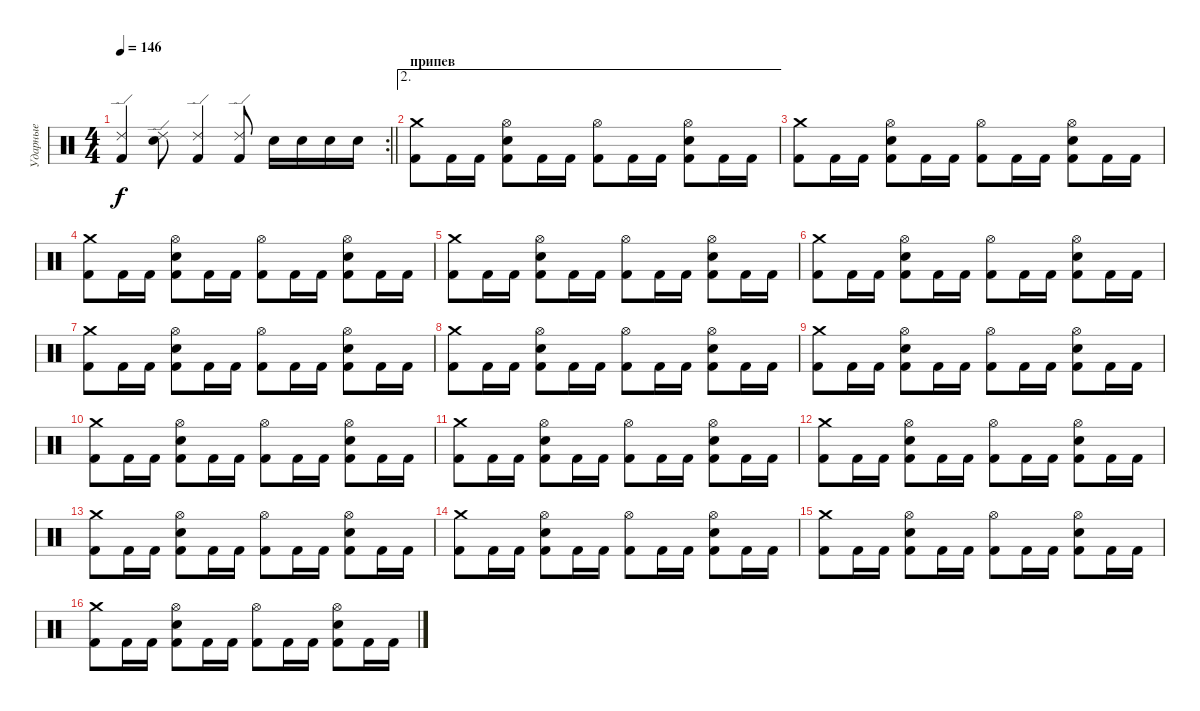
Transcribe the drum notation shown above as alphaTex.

\track ("Ударные" "Ударные") {instrument percussion}
\staff {score}
\articulation defaults
\rc 2
\ts (4 4)
\tempo 146
\clef neutral
\barLineRight lightlight
\ks c
("Ride (edge) 2" "Kick (hit) 2").4{dy f} ("Ride (edge) 2" "Snare (hit) 2").8 ("Ride (edge) 2" "Kick (hit) 2").4 ("Ride (edge) 2" "Kick (hit) 2").8 "Snare (hit) 2".16 "Snare (hit) 2".16 "Snare (hit) 2".16 "Snare (hit) 2".16 |
\ae 2
\section ("" "припев")
("Kick (hit) 2" "Crash medium (hit)").8 "Kick (hit) 2".16 "Kick (hit) 2".16 ("Kick (hit) 2" "Snare (hit) 2" "Hi-Hat (open)").8 "Kick (hit) 2".16 "Kick (hit) 2".16 ("Kick (hit) 2" "Hi-Hat (open)").8 "Kick (hit) 2".16 "Kick (hit) 2".16 ("Kick (hit) 2" "Snare (hit) 2" "Hi-Hat (open)").8 "Kick (hit) 2".16 "Kick (hit) 2".16 |
("Kick (hit) 2" "Crash medium (hit)").8 "Kick (hit) 2".16 "Kick (hit) 2".16 ("Kick (hit) 2" "Snare (hit) 2" "Hi-Hat (open)").8 "Kick (hit) 2".16 "Kick (hit) 2".16 ("Kick (hit) 2" "Hi-Hat (open)").8 "Kick (hit) 2".16 "Kick (hit) 2".16 ("Kick (hit) 2" "Snare (hit) 2" "Hi-Hat (open)").8 "Kick (hit) 2".16 "Kick (hit) 2".16 |
("Kick (hit) 2" "Crash medium (hit)").8 "Kick (hit) 2".16 "Kick (hit) 2".16 ("Kick (hit) 2" "Snare (hit) 2" "Hi-Hat (open)").8 "Kick (hit) 2".16 "Kick (hit) 2".16 ("Kick (hit) 2" "Hi-Hat (open)").8 "Kick (hit) 2".16 "Kick (hit) 2".16 ("Kick (hit) 2" "Snare (hit) 2" "Hi-Hat (open)").8 "Kick (hit) 2".16 "Kick (hit) 2".16 |
("Kick (hit) 2" "Crash medium (hit)").8 "Kick (hit) 2".16 "Kick (hit) 2".16 ("Kick (hit) 2" "Snare (hit) 2" "Hi-Hat (open)").8 "Kick (hit) 2".16 "Kick (hit) 2".16 ("Kick (hit) 2" "Hi-Hat (open)").8 "Kick (hit) 2".16 "Kick (hit) 2".16 ("Kick (hit) 2" "Snare (hit) 2" "Hi-Hat (open)").8 "Kick (hit) 2".16 "Kick (hit) 2".16 |
("Kick (hit) 2" "Crash medium (hit)").8 "Kick (hit) 2".16 "Kick (hit) 2".16 ("Kick (hit) 2" "Snare (hit) 2" "Hi-Hat (open)").8 "Kick (hit) 2".16 "Kick (hit) 2".16 ("Kick (hit) 2" "Hi-Hat (open)").8 "Kick (hit) 2".16 "Kick (hit) 2".16 ("Kick (hit) 2" "Snare (hit) 2" "Hi-Hat (open)").8 "Kick (hit) 2".16 "Kick (hit) 2".16 |
("Kick (hit) 2" "Crash medium (hit)").8 "Kick (hit) 2".16 "Kick (hit) 2".16 ("Kick (hit) 2" "Snare (hit) 2" "Hi-Hat (open)").8 "Kick (hit) 2".16 "Kick (hit) 2".16 ("Kick (hit) 2" "Hi-Hat (open)").8 "Kick (hit) 2".16 "Kick (hit) 2".16 ("Kick (hit) 2" "Snare (hit) 2" "Hi-Hat (open)").8 "Kick (hit) 2".16 "Kick (hit) 2".16 |
("Kick (hit) 2" "Crash medium (hit)").8 "Kick (hit) 2".16 "Kick (hit) 2".16 ("Kick (hit) 2" "Snare (hit) 2" "Hi-Hat (open)").8 "Kick (hit) 2".16 "Kick (hit) 2".16 ("Kick (hit) 2" "Hi-Hat (open)").8 "Kick (hit) 2".16 "Kick (hit) 2".16 ("Kick (hit) 2" "Snare (hit) 2" "Hi-Hat (open)").8 "Kick (hit) 2".16 "Kick (hit) 2".16 |
("Kick (hit) 2" "Crash medium (hit)").8 "Kick (hit) 2".16 "Kick (hit) 2".16 ("Kick (hit) 2" "Snare (hit) 2" "Hi-Hat (open)").8 "Kick (hit) 2".16 "Kick (hit) 2".16 ("Kick (hit) 2" "Hi-Hat (open)").8 "Kick (hit) 2".16 "Kick (hit) 2".16 ("Kick (hit) 2" "Snare (hit) 2" "Hi-Hat (open)").8 "Kick (hit) 2".16 "Kick (hit) 2".16 |
("Kick (hit) 2" "Crash medium (hit)").8 "Kick (hit) 2".16 "Kick (hit) 2".16 ("Kick (hit) 2" "Snare (hit) 2" "Hi-Hat (open)").8 "Kick (hit) 2".16 "Kick (hit) 2".16 ("Kick (hit) 2" "Hi-Hat (open)").8 "Kick (hit) 2".16 "Kick (hit) 2".16 ("Kick (hit) 2" "Snare (hit) 2" "Hi-Hat (open)").8 "Kick (hit) 2".16 "Kick (hit) 2".16 |
("Kick (hit) 2" "Crash medium (hit)").8 "Kick (hit) 2".16 "Kick (hit) 2".16 ("Kick (hit) 2" "Snare (hit) 2" "Hi-Hat (open)").8 "Kick (hit) 2".16 "Kick (hit) 2".16 ("Kick (hit) 2" "Hi-Hat (open)").8 "Kick (hit) 2".16 "Kick (hit) 2".16 ("Kick (hit) 2" "Snare (hit) 2" "Hi-Hat (open)").8 "Kick (hit) 2".16 "Kick (hit) 2".16 |
("Kick (hit) 2" "Crash medium (hit)").8 "Kick (hit) 2".16 "Kick (hit) 2".16 ("Kick (hit) 2" "Snare (hit) 2" "Hi-Hat (open)").8 "Kick (hit) 2".16 "Kick (hit) 2".16 ("Kick (hit) 2" "Hi-Hat (open)").8 "Kick (hit) 2".16 "Kick (hit) 2".16 ("Kick (hit) 2" "Snare (hit) 2" "Hi-Hat (open)").8 "Kick (hit) 2".16 "Kick (hit) 2".16 |
("Kick (hit) 2" "Crash medium (hit)").8 "Kick (hit) 2".16 "Kick (hit) 2".16 ("Kick (hit) 2" "Snare (hit) 2" "Hi-Hat (open)").8 "Kick (hit) 2".16 "Kick (hit) 2".16 ("Kick (hit) 2" "Hi-Hat (open)").8 "Kick (hit) 2".16 "Kick (hit) 2".16 ("Kick (hit) 2" "Snare (hit) 2" "Hi-Hat (open)").8 "Kick (hit) 2".16 "Kick (hit) 2".16 |
("Kick (hit) 2" "Crash medium (hit)").8 "Kick (hit) 2".16 "Kick (hit) 2".16 ("Kick (hit) 2" "Snare (hit) 2" "Hi-Hat (open)").8 "Kick (hit) 2".16 "Kick (hit) 2".16 ("Kick (hit) 2" "Hi-Hat (open)").8 "Kick (hit) 2".16 "Kick (hit) 2".16 ("Kick (hit) 2" "Snare (hit) 2" "Hi-Hat (open)").8 "Kick (hit) 2".16 "Kick (hit) 2".16 |
("Kick (hit) 2" "Crash medium (hit)").8 "Kick (hit) 2".16 "Kick (hit) 2".16 ("Kick (hit) 2" "Snare (hit) 2" "Hi-Hat (open)").8 "Kick (hit) 2".16 "Kick (hit) 2".16 ("Kick (hit) 2" "Hi-Hat (open)").8 "Kick (hit) 2".16 "Kick (hit) 2".16 ("Kick (hit) 2" "Snare (hit) 2" "Hi-Hat (open)").8 "Kick (hit) 2".16 "Kick (hit) 2".16 |
("Kick (hit) 2" "Crash medium (hit)").8 "Kick (hit) 2".16 "Kick (hit) 2".16 ("Kick (hit) 2" "Snare (hit) 2" "Hi-Hat (open)").8 "Kick (hit) 2".16 "Kick (hit) 2".16 ("Kick (hit) 2" "Hi-Hat (open)").8 "Kick (hit) 2".16 "Kick (hit) 2".16 ("Kick (hit) 2" "Snare (hit) 2" "Hi-Hat (open)").8 "Kick (hit) 2".16 "Kick (hit) 2".16
